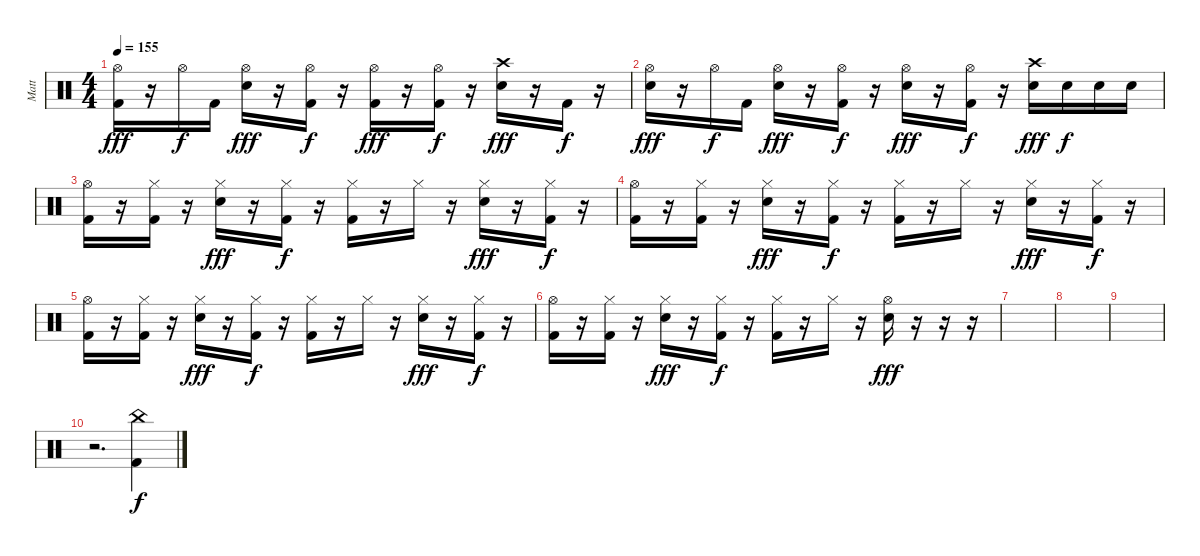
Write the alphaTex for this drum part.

\track ("Matt" "Matt") {instrument percussion}
\staff {score}
\articulation defaults
\ts (4 4)
\tempo 155
\clef neutral
\ks c
("Hi-Hat (open)" "Kick (hit) 2").16{dy fff} r.16 "Hi-Hat (open)".16{dy f} "Kick (hit) 2".16 ("Hi-Hat (open)" "Snare (hit) 2").16{dy fff} r.16 ("Hi-Hat (open)" "Kick (hit) 2").16{dy f} r.16 ("Hi-Hat (open)" "Kick (hit) 2").16{dy fff} r.16 ("Hi-Hat (open)" "Kick (hit) 2").16{dy f} r.16 ("Crash high (hit)" "Snare (hit) 2").16{dy fff} r.16 "Kick (hit) 2".16{dy f} r.16 |
("Hi-Hat (open)" "Snare (hit) 2").16{dy fff} r.16 "Hi-Hat (open)".16{dy f} "Kick (hit) 2".16 ("Hi-Hat (open)" "Snare (hit) 2").16{dy fff} r.16 ("Hi-Hat (open)" "Kick (hit) 2").16{dy f} r.16 ("Hi-Hat (open)" "Snare (hit) 2").16{dy fff} r.16 ("Hi-Hat (open)" "Kick (hit) 2").16{dy f} r.16 ("Crash high (hit)" "Snare (hit) 2").16{dy fff} "Snare (hit) 2".16{dy f} "Snare (hit) 2".16 "Snare (hit) 2".16 |
("Hi-Hat (open)" "Kick (hit) 2").16 r.16 ("Hi-Hat (closed)" "Kick (hit) 2").16 r.16 ("Hi-Hat (closed)" "Snare (hit) 2").16{dy fff} r.16 ("Hi-Hat (closed)" "Kick (hit) 2").16{dy f} r.16 ("Hi-Hat (closed)" "Kick (hit) 2").16 r.16 "Hi-Hat (closed)".16 r.16 ("Hi-Hat (closed)" "Snare (hit) 2").16{dy fff} r.16 ("Hi-Hat (closed)" "Kick (hit) 2").16{dy f} r.16 |
("Hi-Hat (open)" "Kick (hit) 2").16 r.16 ("Hi-Hat (closed)" "Kick (hit) 2").16 r.16 ("Hi-Hat (closed)" "Snare (hit) 2").16{dy fff} r.16 ("Hi-Hat (closed)" "Kick (hit) 2").16{dy f} r.16 ("Hi-Hat (closed)" "Kick (hit) 2").16 r.16 "Hi-Hat (closed)".16 r.16 ("Hi-Hat (closed)" "Snare (hit) 2").16{dy fff} r.16 ("Hi-Hat (closed)" "Kick (hit) 2").16{dy f} r.16 |
("Hi-Hat (open)" "Kick (hit) 2").16 r.16 ("Hi-Hat (closed)" "Kick (hit) 2").16 r.16 ("Hi-Hat (closed)" "Snare (hit) 2").16{dy fff} r.16 ("Hi-Hat (closed)" "Kick (hit) 2").16{dy f} r.16 ("Hi-Hat (closed)" "Kick (hit) 2").16 r.16 "Hi-Hat (closed)".16 r.16 ("Hi-Hat (closed)" "Snare (hit) 2").16{dy fff} r.16 ("Hi-Hat (closed)" "Kick (hit) 2").16{dy f} r.16 |
("Hi-Hat (open)" "Kick (hit) 2").16 r.16 ("Hi-Hat (closed)" "Kick (hit) 2").16 r.16 ("Hi-Hat (closed)" "Snare (hit) 2").16{dy fff} r.16 ("Hi-Hat (closed)" "Kick (hit) 2").16{dy f} r.16 ("Hi-Hat (closed)" "Kick (hit) 2").16 r.16 "Hi-Hat (closed)".16 r.16 ("Hi-Hat (open)" "Snare (hit) 2").16{dy fff} r.16 r.16 r.16 |
|
|
|
r.2{d} ("China (hit)" "Kick (hit) 2").4{dy f}
